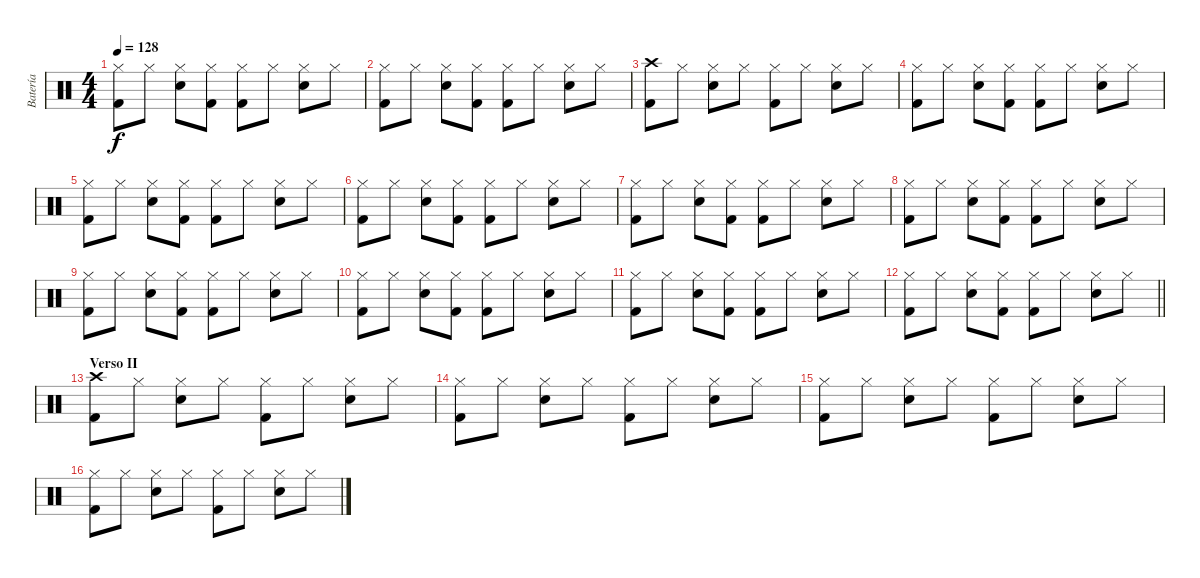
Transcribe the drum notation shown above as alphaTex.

\track ("Batería" "Batería") {instrument percussion}
\staff {score}
\articulation defaults
\ts (4 4)
\tempo 128
\clef neutral
\ks c
("Hi-Hat (closed)" "Kick (hit) 2").8{dy f} "Hi-Hat (closed)".8 ("Hi-Hat (closed)" "Electric Snare (hit)").8 ("Hi-Hat (closed)" "Kick (hit) 2").8 ("Hi-Hat (closed)" "Kick (hit) 2").8 "Hi-Hat (closed)".8 ("Hi-Hat (closed)" "Electric Snare (hit)").8 "Hi-Hat (closed)".8 |
("Hi-Hat (closed)" "Kick (hit) 2").8 "Hi-Hat (closed)".8 ("Hi-Hat (closed)" "Electric Snare (hit)").8 ("Hi-Hat (closed)" "Kick (hit) 2").8 ("Hi-Hat (closed)" "Kick (hit) 2").8 "Hi-Hat (closed)".8 ("Hi-Hat (closed)" "Electric Snare (hit)").8 "Hi-Hat (closed)".8 |
("Kick (hit) 2" "Crash high (hit)").8 "Hi-Hat (closed)".8 ("Hi-Hat (closed)" "Electric Snare (hit)").8 "Hi-Hat (closed)".8 ("Hi-Hat (closed)" "Kick (hit) 2").8 "Hi-Hat (closed)".8 ("Hi-Hat (closed)" "Electric Snare (hit)").8 "Hi-Hat (closed)".8 |
("Hi-Hat (closed)" "Kick (hit) 2").8 "Hi-Hat (closed)".8 ("Hi-Hat (closed)" "Electric Snare (hit)").8 ("Hi-Hat (closed)" "Kick (hit) 2").8 ("Hi-Hat (closed)" "Kick (hit) 2").8 "Hi-Hat (closed)".8 ("Hi-Hat (closed)" "Electric Snare (hit)").8 "Hi-Hat (closed)".8 |
("Hi-Hat (closed)" "Kick (hit) 2").8 "Hi-Hat (closed)".8 ("Hi-Hat (closed)" "Electric Snare (hit)").8 ("Hi-Hat (closed)" "Kick (hit) 2").8 ("Hi-Hat (closed)" "Kick (hit) 2").8 "Hi-Hat (closed)".8 ("Hi-Hat (closed)" "Electric Snare (hit)").8 "Hi-Hat (closed)".8 |
("Hi-Hat (closed)" "Kick (hit) 2").8 "Hi-Hat (closed)".8 ("Hi-Hat (closed)" "Electric Snare (hit)").8 ("Hi-Hat (closed)" "Kick (hit) 2").8 ("Hi-Hat (closed)" "Kick (hit) 2").8 "Hi-Hat (closed)".8 ("Hi-Hat (closed)" "Electric Snare (hit)").8 "Hi-Hat (closed)".8 |
("Hi-Hat (closed)" "Kick (hit) 2").8 "Hi-Hat (closed)".8 ("Hi-Hat (closed)" "Electric Snare (hit)").8 ("Hi-Hat (closed)" "Kick (hit) 2").8 ("Hi-Hat (closed)" "Kick (hit) 2").8 "Hi-Hat (closed)".8 ("Hi-Hat (closed)" "Electric Snare (hit)").8 "Hi-Hat (closed)".8 |
("Hi-Hat (closed)" "Kick (hit) 2").8 "Hi-Hat (closed)".8 ("Hi-Hat (closed)" "Electric Snare (hit)").8 ("Hi-Hat (closed)" "Kick (hit) 2").8 ("Hi-Hat (closed)" "Kick (hit) 2").8 "Hi-Hat (closed)".8 ("Hi-Hat (closed)" "Electric Snare (hit)").8 "Hi-Hat (closed)".8 |
("Hi-Hat (closed)" "Kick (hit) 2").8 "Hi-Hat (closed)".8 ("Hi-Hat (closed)" "Electric Snare (hit)").8 ("Hi-Hat (closed)" "Kick (hit) 2").8 ("Hi-Hat (closed)" "Kick (hit) 2").8 "Hi-Hat (closed)".8 ("Hi-Hat (closed)" "Electric Snare (hit)").8 "Hi-Hat (closed)".8 |
("Hi-Hat (closed)" "Kick (hit) 2").8 "Hi-Hat (closed)".8 ("Hi-Hat (closed)" "Electric Snare (hit)").8 ("Hi-Hat (closed)" "Kick (hit) 2").8 ("Hi-Hat (closed)" "Kick (hit) 2").8 "Hi-Hat (closed)".8 ("Hi-Hat (closed)" "Electric Snare (hit)").8 "Hi-Hat (closed)".8 |
("Hi-Hat (closed)" "Kick (hit) 2").8 "Hi-Hat (closed)".8 ("Hi-Hat (closed)" "Electric Snare (hit)").8 ("Hi-Hat (closed)" "Kick (hit) 2").8 ("Hi-Hat (closed)" "Kick (hit) 2").8 "Hi-Hat (closed)".8 ("Hi-Hat (closed)" "Electric Snare (hit)").8 "Hi-Hat (closed)".8 |
\barLineRight lightlight
("Hi-Hat (closed)" "Kick (hit) 2").8 "Hi-Hat (closed)".8 ("Hi-Hat (closed)" "Electric Snare (hit)").8 ("Hi-Hat (closed)" "Kick (hit) 2").8 ("Hi-Hat (closed)" "Kick (hit) 2").8 "Hi-Hat (closed)".8 ("Hi-Hat (closed)" "Electric Snare (hit)").8 "Hi-Hat (closed)".8 |
\section ("" "Verso II")
("Crash high (hit)" "Kick (hit) 2").8 "Hi-Hat (closed)".8 ("Hi-Hat (closed)" "Electric Snare (hit)").8 "Hi-Hat (closed)".8 ("Hi-Hat (closed)" "Kick (hit) 2").8 "Hi-Hat (closed)".8 ("Hi-Hat (closed)" "Electric Snare (hit)").8 "Hi-Hat (closed)".8 |
("Hi-Hat (closed)" "Kick (hit) 2").8 "Hi-Hat (closed)".8 ("Hi-Hat (closed)" "Electric Snare (hit)").8 "Hi-Hat (closed)".8 ("Hi-Hat (closed)" "Kick (hit) 2").8 "Hi-Hat (closed)".8 ("Hi-Hat (closed)" "Electric Snare (hit)").8 "Hi-Hat (closed)".8 |
("Hi-Hat (closed)" "Kick (hit) 2").8 "Hi-Hat (closed)".8 ("Hi-Hat (closed)" "Electric Snare (hit)").8 "Hi-Hat (closed)".8 ("Hi-Hat (closed)" "Kick (hit) 2").8 "Hi-Hat (closed)".8 ("Hi-Hat (closed)" "Electric Snare (hit)").8 "Hi-Hat (closed)".8 |
("Hi-Hat (closed)" "Kick (hit) 2").8 "Hi-Hat (closed)".8 ("Hi-Hat (closed)" "Electric Snare (hit)").8 "Hi-Hat (closed)".8 ("Hi-Hat (closed)" "Kick (hit) 2").8 "Hi-Hat (closed)".8 ("Hi-Hat (closed)" "Electric Snare (hit)").8 "Hi-Hat (closed)".8
